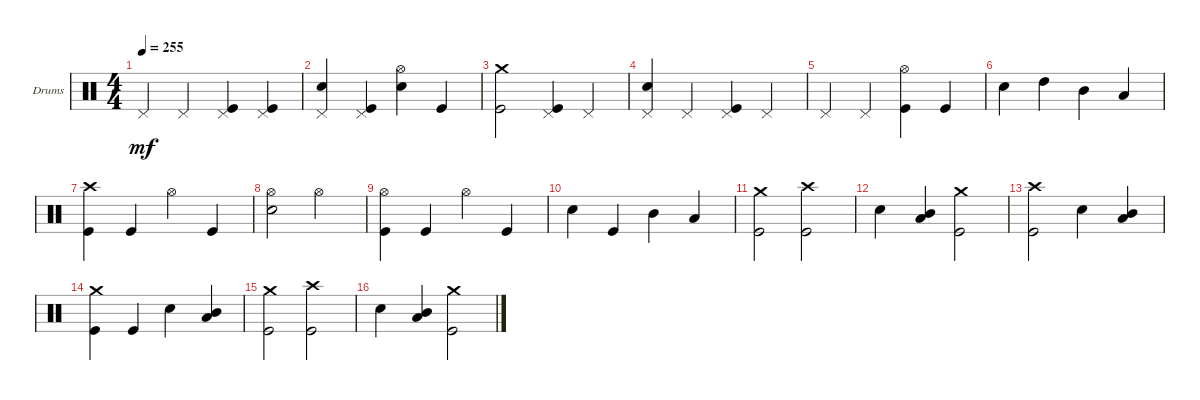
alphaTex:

\bracketExtendMode groupsimilarinstruments
\firstSystemTrackNameOrientation horizontal
\otherSystemsTrackNameOrientation horizontal
\track ("Drums" "Drums") {instrument percussion}
\staff {score}
\articulation defaults
\ts (4 4)
\tempo 255
\clef neutral
\ks c "Pedal Hi-Hat (hit)".4{dy mf} "Pedal Hi-Hat (hit)".4
("Kick (hit)" "Pedal Hi-Hat (hit)").4 ("Kick (hit)" "Pedal Hi-Hat (hit)").4 |
("Snare (hit) 2" "Pedal Hi-Hat (hit)").4 ("Kick (hit)" "Pedal Hi-Hat (hit)").4 ("Snare (hit) 2" "Hi-Hat (open)").4 "Kick (hit)".4 |
("Kick (hit)" "Crash medium (hit)").2 ("Kick (hit)" "Pedal Hi-Hat (hit)").4 "Pedal Hi-Hat (hit)".4 |
("Snare (hit) 2" "Pedal Hi-Hat (hit)").4 "Pedal Hi-Hat (hit)".4 ("Kick (hit)" "Pedal Hi-Hat (hit)").4 "Pedal Hi-Hat (hit)".4 |
"Pedal Hi-Hat (hit)".4 "Pedal Hi-Hat (hit)".4 ("Kick (hit)" "Hi-Hat (open)").4 "Kick (hit)".4 |
"Snare (hit) 2".4 "High Tom (hit)".4 "Mid Tom (hit)".4 "Low Tom (hit)".4 |
("Kick (hit)" "Crash high (hit)").4 "Kick (hit)".4 "Hi-Hat (open)".4 "Kick (hit)".4 |
("Snare (hit) 2" "Hi-Hat (open)").2 "Hi-Hat (open)".2 |
("Kick (hit)" "Hi-Hat (open)").4 "Kick (hit)".4 "Hi-Hat (open)".4 "Kick (hit)".4 |
"Snare (hit) 2".4 "Kick (hit)".4 "Mid Tom (hit)".4 "Low Tom (hit)".4 |
("Kick (hit)" "Crash medium (hit)").2 ("Kick (hit)" "Crash high (hit)").2 |
"Snare (hit) 2".4 ("Low Tom (hit)" "Mid Tom (hit)").4 ("Kick (hit)" "Crash medium (hit)").2 |
("Kick (hit)" "Crash high (hit)").2 "Snare (hit) 2".4 ("Low Tom (hit)" "Mid Tom (hit)").4 |
("Kick (hit)" "Crash medium (hit)").4 "Kick (hit)".4 "Snare (hit) 2".4 ("Low Tom (hit)" "Mid Tom (hit)").4 |
("Kick (hit)" "Crash medium (hit)").2 ("Kick (hit)" "Crash high (hit)").2 |
"Snare (hit) 2".4 ("Low Tom (hit)" "Mid Tom (hit)").4 ("Kick (hit)" "Crash medium (hit)").2
